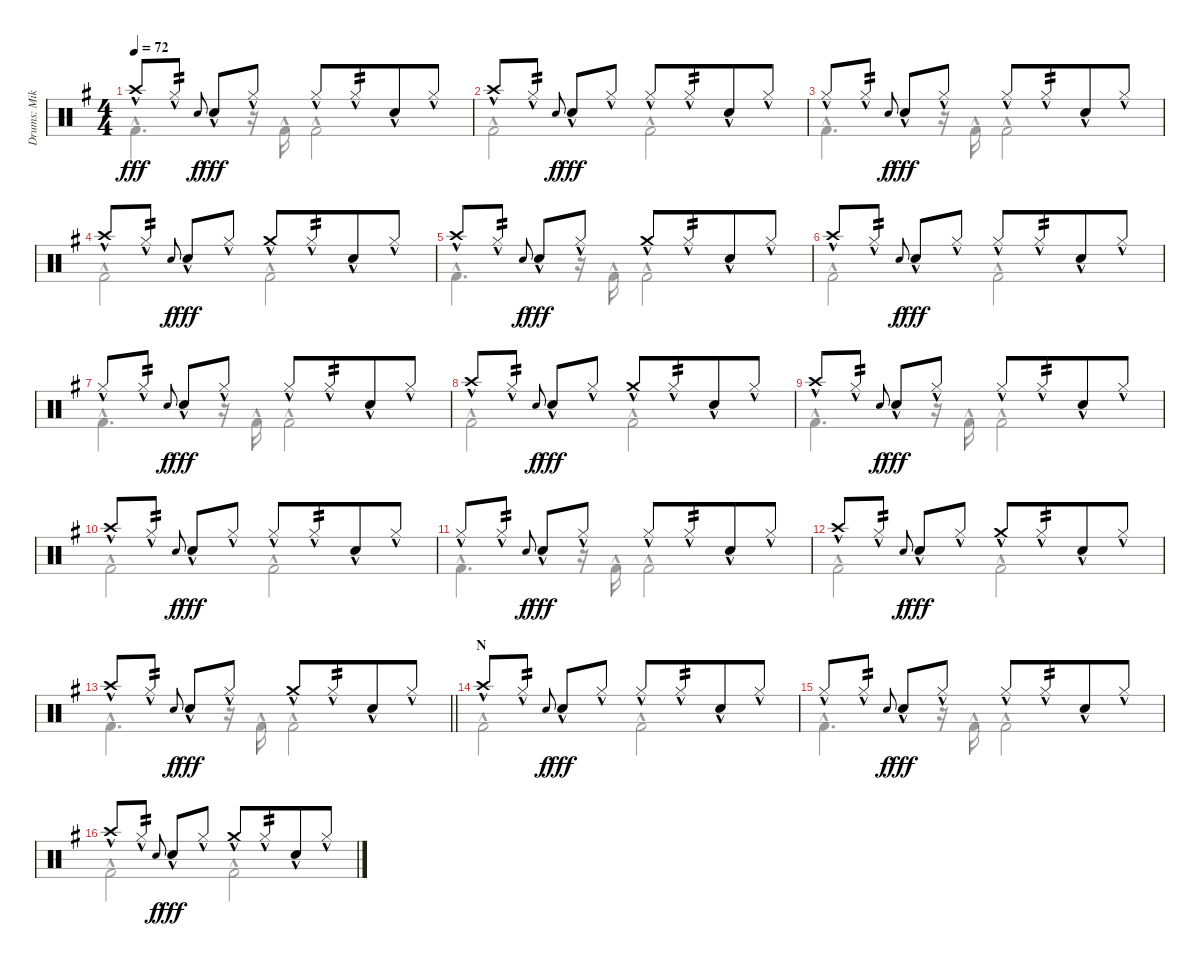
\track ("Drums: Mike" "Drums: Mik") {instrument percussion}
\staff {score}
\articulation defaults
\voice
\ts (4 4)
\tempo 72
\clef neutral
\ks g "Crash high (hit)"{hac}.8{dy fff} "Hi-Hat (closed)"{hac}.8{tp 2} "Electric Snare (hit)".8{gr onbeat dy f beam merge} "Snare (hit) 2"{hac}.8{dy fff} "Hi-Hat (closed)"{hac}.8 "Hi-Hat (closed)"{hac}.8 "Hi-Hat (closed)"{hac}.8{tp 2 beam merge} "Snare (hit) 2"{hac}.8 "Hi-Hat (closed)"{hac}.8
|
"Crash high (hit)"{hac}.8 "Hi-Hat (closed)"{hac}.8{tp 2} "Electric Snare (hit)".8{gr onbeat dy f beam merge} "Snare (hit) 2"{hac}.8{dy fff} "Hi-Hat (closed)"{hac}.8 "Hi-Hat (closed)"{hac}.8 "Hi-Hat (closed)"{hac}.8{tp 2 beam merge} "Snare (hit) 2"{hac}.8 "Hi-Hat (closed)"{hac}.8 |
"Hi-Hat (closed)"{hac}.8 "Hi-Hat (closed)"{hac}.8{tp 2} "Electric Snare (hit)".8{gr onbeat dy f beam merge} "Snare (hit) 2"{hac}.8{dy fff} "Hi-Hat (closed)"{hac}.8 "Hi-Hat (closed)"{hac}.8 "Hi-Hat (closed)"{hac}.8{tp 2 beam merge} "Snare (hit) 2"{hac}.8 "Hi-Hat (closed)"{hac}.8 |
"Crash high (hit)"{hac}.8 "Hi-Hat (closed)"{hac}.8{tp 2} "Electric Snare (hit)".8{gr onbeat dy f beam merge} "Snare (hit) 2"{hac}.8{dy fff} "Hi-Hat (closed)"{hac}.8 "Crash medium (hit)"{hac}.8 "Hi-Hat (closed)"{hac}.8{tp 2 beam merge} "Snare (hit) 2"{hac}.8 "Hi-Hat (closed)"{hac}.8 |
"Crash high (hit)"{hac}.8 "Hi-Hat (closed)"{hac}.8{tp 2} "Electric Snare (hit)".8{gr onbeat dy f beam merge} "Snare (hit) 2"{hac}.8{dy fff} "Hi-Hat (closed)"{hac}.8 "Crash medium (hit)"{hac}.8 "Hi-Hat (closed)"{hac}.8{tp 2 beam merge} "Snare (hit) 2"{hac}.8 "Hi-Hat (closed)"{hac}.8 |
"Crash high (hit)"{hac}.8 "Hi-Hat (closed)"{hac}.8{tp 2} "Electric Snare (hit)".8{gr onbeat dy f beam merge} "Snare (hit) 2"{hac}.8{dy fff} "Hi-Hat (closed)"{hac}.8 "Hi-Hat (closed)"{hac}.8 "Hi-Hat (closed)"{hac}.8{tp 2 beam merge} "Snare (hit) 2"{hac}.8 "Hi-Hat (closed)"{hac}.8 |
"Hi-Hat (closed)"{hac}.8 "Hi-Hat (closed)"{hac}.8{tp 2} "Electric Snare (hit)".8{gr onbeat dy f beam merge} "Snare (hit) 2"{hac}.8{dy fff} "Hi-Hat (closed)"{hac}.8 "Hi-Hat (closed)"{hac}.8 "Hi-Hat (closed)"{hac}.8{tp 2 beam merge} "Snare (hit) 2"{hac}.8 "Hi-Hat (closed)"{hac}.8 |
"Crash high (hit)"{hac}.8 "Hi-Hat (closed)"{hac}.8{tp 2} "Electric Snare (hit)".8{gr onbeat dy f beam merge} "Snare (hit) 2"{hac}.8{dy fff} "Hi-Hat (closed)"{hac}.8 "Crash medium (hit)"{hac}.8 "Hi-Hat (closed)"{hac}.8{tp 2 beam merge} "Snare (hit) 2"{hac}.8 "Hi-Hat (closed)"{hac}.8 |
"Crash high (hit)"{hac}.8 "Hi-Hat (closed)"{hac}.8{tp 2} "Electric Snare (hit)".8{gr onbeat dy f beam merge} "Snare (hit) 2"{hac}.8{dy fff} "Hi-Hat (closed)"{hac}.8 "Hi-Hat (closed)"{hac}.8 "Hi-Hat (closed)"{hac}.8{tp 2 beam merge} "Snare (hit) 2"{hac}.8 "Hi-Hat (closed)"{hac}.8 |
"Crash high (hit)"{hac}.8 "Hi-Hat (closed)"{hac}.8{tp 2} "Electric Snare (hit)".8{gr onbeat dy f beam merge} "Snare (hit) 2"{hac}.8{dy fff} "Hi-Hat (closed)"{hac}.8 "Hi-Hat (closed)"{hac}.8 "Hi-Hat (closed)"{hac}.8{tp 2 beam merge} "Snare (hit) 2"{hac}.8 "Hi-Hat (closed)"{hac}.8 |
"Hi-Hat (closed)"{hac}.8 "Hi-Hat (closed)"{hac}.8{tp 2} "Electric Snare (hit)".8{gr onbeat dy f beam merge} "Snare (hit) 2"{hac}.8{dy fff} "Hi-Hat (closed)"{hac}.8 "Hi-Hat (closed)"{hac}.8 "Hi-Hat (closed)"{hac}.8{tp 2 beam merge} "Snare (hit) 2"{hac}.8 "Hi-Hat (closed)"{hac}.8 |
"Crash high (hit)"{hac}.8 "Hi-Hat (closed)"{hac}.8{tp 2} "Electric Snare (hit)".8{gr onbeat dy f beam merge} "Snare (hit) 2"{hac}.8{dy fff} "Hi-Hat (closed)"{hac}.8 "Crash medium (hit)"{hac}.8 "Hi-Hat (closed)"{hac}.8{tp 2 beam merge} "Snare (hit) 2"{hac}.8 "Hi-Hat (closed)"{hac}.8 |
\barLineRight lightlight "Crash high (hit)"{hac}.8 "Hi-Hat (closed)"{hac}.8{tp 2} "Electric Snare (hit)".8{gr onbeat dy f beam merge} "Snare (hit) 2"{hac}.8{dy fff} "Hi-Hat (closed)"{hac}.8 "Crash medium (hit)"{hac}.8 "Hi-Hat (closed)"{hac}.8{tp 2 beam merge} "Snare (hit) 2"{hac}.8 "Hi-Hat (closed)"{hac}.8
|
\section ("" "N")
"Crash high (hit)"{hac}.8 "Hi-Hat (closed)"{hac}.8{tp 2} "Electric Snare (hit)".8{gr onbeat dy f beam merge} "Snare (hit) 2"{hac}.8{dy fff} "Hi-Hat (closed)"{hac}.8 "Hi-Hat (closed)"{hac}.8 "Hi-Hat (closed)"{hac}.8{tp 2 beam merge} "Snare (hit) 2"{hac}.8 "Hi-Hat (closed)"{hac}.8 |
"Hi-Hat (closed)"{hac}.8 "Hi-Hat (closed)"{hac}.8{tp 2} "Electric Snare (hit)".8{gr onbeat dy f beam merge} "Snare (hit) 2"{hac}.8{dy fff} "Hi-Hat (closed)"{hac}.8 "Hi-Hat (closed)"{hac}.8 "Hi-Hat (closed)"{hac}.8{tp 2 beam merge} "Snare (hit) 2"{hac}.8 "Hi-Hat (closed)"{hac}.8 |
"Crash high (hit)"{hac}.8 "Hi-Hat (closed)"{hac}.8{tp 2} "Electric Snare (hit)".8{gr onbeat dy f beam merge} "Snare (hit) 2"{hac}.8{dy fff} "Hi-Hat (closed)"{hac}.8 "Crash medium (hit)"{hac}.8 "Hi-Hat (closed)"{hac}.8{tp 2 beam merge} "Snare (hit) 2"{hac}.8 "Hi-Hat (closed)"{hac}.8
\voice
\clef neutral
\ottava regular
\simile none
\ks g "Kick (hit) 2"{hac}.4{d dy fff}
r.16 "Kick (hit) 2"{hac}.16 "Kick (hit) 2"{hac}.2 |
"Kick (hit) 2"{hac}.2 "Kick (hit) 2"{hac}.2 |
"Kick (hit) 2"{hac}.4{d} r.16 "Kick (hit) 2"{hac}.16 "Kick (hit) 2"{hac}.2 |
"Kick (hit) 2"{hac}.2 "Kick (hit) 2"{hac}.2 |
"Kick (hit) 2"{hac}.4{d} r.16 "Kick (hit) 2"{hac}.16 "Kick (hit) 2"{hac}.2 |
"Kick (hit) 2"{hac}.2 "Kick (hit) 2"{hac}.2 |
"Kick (hit) 2"{hac}.4{d} r.16 "Kick (hit) 2"{hac}.16 "Kick (hit) 2"{hac}.2 |
"Kick (hit) 2"{hac}.2 "Kick (hit) 2"{hac}.2 |
"Kick (hit) 2"{hac}.4{d} r.16 "Kick (hit) 2"{hac}.16 "Kick (hit) 2"{hac}.2 |
"Kick (hit) 2"{hac}.2 "Kick (hit) 2"{hac}.2 |
"Kick (hit) 2"{hac}.4{d} r.16 "Kick (hit) 2"{hac}.16 "Kick (hit) 2"{hac}.2 |
"Kick (hit) 2"{hac}.2 "Kick (hit) 2"{hac}.2 |
\barLineRight lightlight "Kick (hit) 2"{hac}.4{d}
r.16 "Kick (hit) 2"{hac}.16 "Kick (hit) 2"{hac}.2 |
"Kick (hit) 2"{hac}.2 "Kick (hit) 2"{hac}.2 |
"Kick (hit) 2"{hac}.4{d} r.16 "Kick (hit) 2"{hac}.16 "Kick (hit) 2"{hac}.2 |
"Kick (hit) 2"{hac}.2 "Kick (hit) 2"{hac}.2
